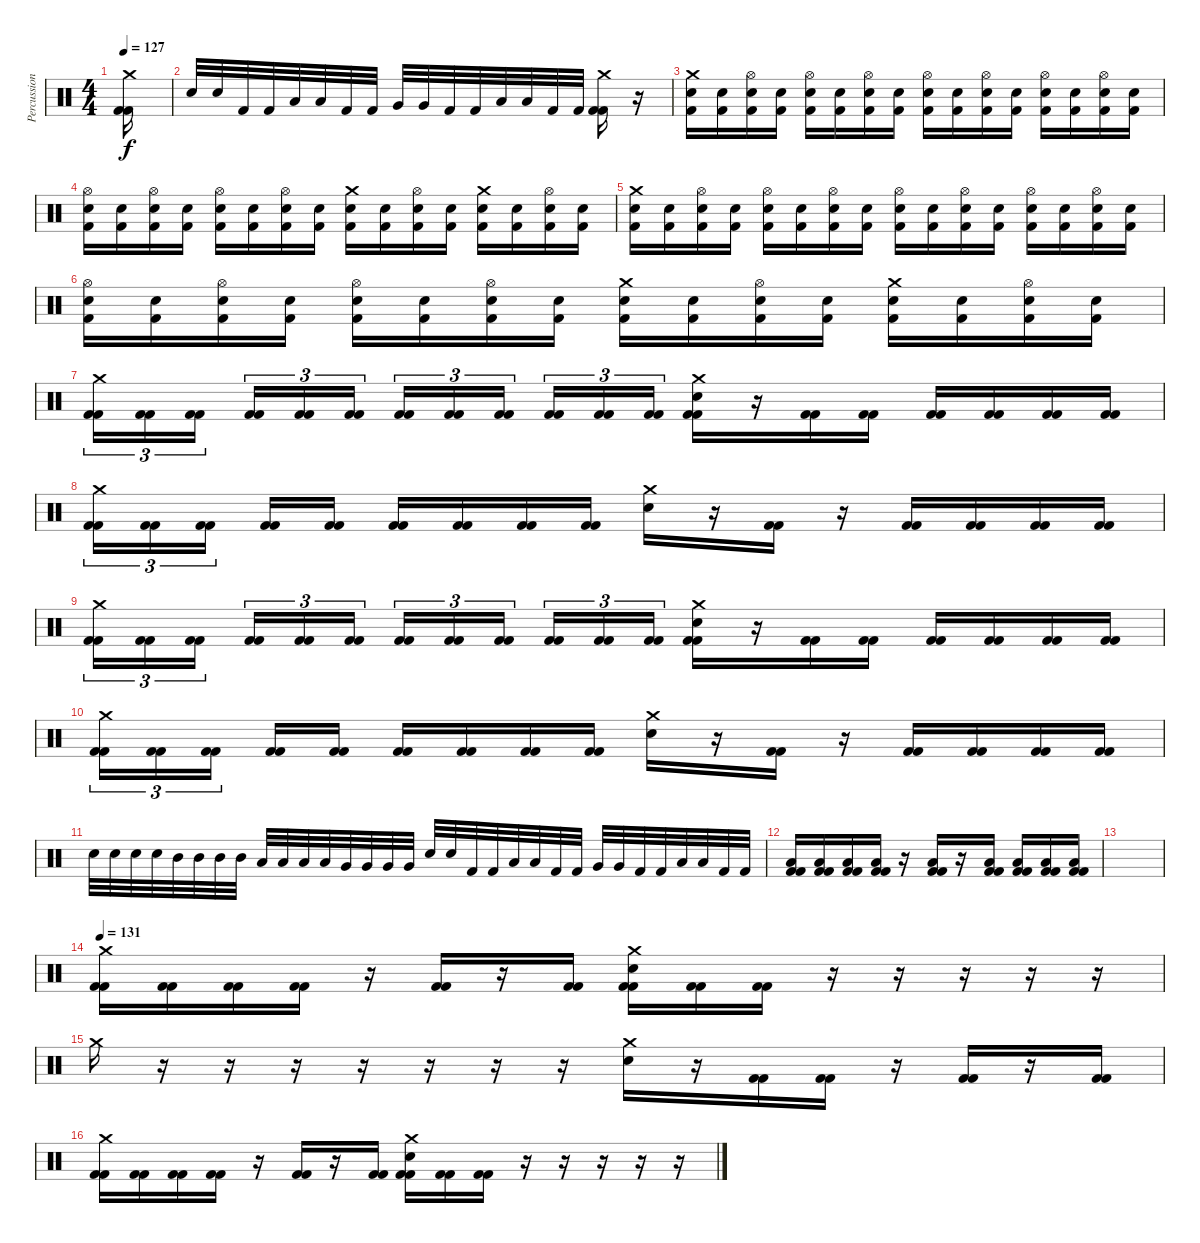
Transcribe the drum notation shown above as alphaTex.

\track ("Percussion" "Percussion") {instrument percussion}
\staff {score}
\articulation defaults
\ts (4 4)
\tempo 127
\clef neutral
\ks c
("Crash medium (hit)" "Kick (hit) 2" "Kick (hit) 2").16{dy f} |
"Electric Snare (hit)".32 "Electric Snare (hit)".32 "Kick (hit) 2".32 "Kick (hit) 2".32 "Low Tom (hit)".32 "Low Tom (hit)".32 "Kick (hit) 2".32 "Kick (hit) 2".32 "Very Low Tom (hit)".32 "Very Low Tom (hit)".32 "Kick (hit) 2".32 "Kick (hit) 2".32 "Low Floor Tom (hit)".32 "Low Floor Tom (hit)".32 "Kick (hit) 2".32 "Kick (hit) 2".32 ("Crash medium (hit)" "Kick (hit) 2" "Kick (hit) 2").16 r.16{volume 0} |
("Crash medium (hit)" "Electric Snare (hit)" "Kick (hit) 2").16{volume 13} ("Electric Snare (hit)" "Kick (hit) 2").16 ("Hi-Hat (open)" "Electric Snare (hit)" "Kick (hit) 2").16 ("Electric Snare (hit)" "Kick (hit) 2").16 ("Hi-Hat (open)" "Electric Snare (hit)" "Kick (hit) 2").16 ("Electric Snare (hit)" "Kick (hit) 2").16 ("Hi-Hat (open)" "Electric Snare (hit)" "Kick (hit) 2").16 ("Electric Snare (hit)" "Kick (hit) 2").16 ("Hi-Hat (open)" "Electric Snare (hit)" "Kick (hit) 2").16 ("Electric Snare (hit)" "Kick (hit) 2").16 ("Hi-Hat (open)" "Electric Snare (hit)" "Kick (hit) 2").16 ("Electric Snare (hit)" "Kick (hit) 2").16 ("Hi-Hat (open)" "Electric Snare (hit)" "Kick (hit) 2").16 ("Electric Snare (hit)" "Kick (hit) 2").16 ("Hi-Hat (open)" "Electric Snare (hit)" "Kick (hit) 2").16 ("Electric Snare (hit)" "Kick (hit) 2").16 |
("Hi-Hat (open)" "Electric Snare (hit)" "Kick (hit) 2").16{volume 13} ("Electric Snare (hit)" "Kick (hit) 2").16 ("Hi-Hat (open)" "Electric Snare (hit)" "Kick (hit) 2").16 ("Electric Snare (hit)" "Kick (hit) 2").16 ("Hi-Hat (open)" "Electric Snare (hit)" "Kick (hit) 2").16 ("Electric Snare (hit)" "Kick (hit) 2").16 ("Hi-Hat (open)" "Electric Snare (hit)" "Kick (hit) 2").16 ("Electric Snare (hit)" "Kick (hit) 2").16 ("Crash medium (hit)" "Electric Snare (hit)" "Kick (hit) 2").16 ("Electric Snare (hit)" "Kick (hit) 2").16 ("Hi-Hat (open)" "Electric Snare (hit)" "Kick (hit) 2").16 ("Electric Snare (hit)" "Kick (hit) 2").16 ("Crash medium (hit)" "Electric Snare (hit)" "Kick (hit) 2").16 ("Electric Snare (hit)" "Kick (hit) 2").16 ("Hi-Hat (open)" "Electric Snare (hit)" "Kick (hit) 2").16 ("Electric Snare (hit)" "Kick (hit) 2").16 |
("Crash medium (hit)" "Electric Snare (hit)" "Kick (hit) 2").16{volume 13} ("Electric Snare (hit)" "Kick (hit) 2").16 ("Hi-Hat (open)" "Electric Snare (hit)" "Kick (hit) 2").16 ("Electric Snare (hit)" "Kick (hit) 2").16 ("Hi-Hat (open)" "Electric Snare (hit)" "Kick (hit) 2").16 ("Electric Snare (hit)" "Kick (hit) 2").16 ("Hi-Hat (open)" "Electric Snare (hit)" "Kick (hit) 2").16 ("Electric Snare (hit)" "Kick (hit) 2").16 ("Hi-Hat (open)" "Electric Snare (hit)" "Kick (hit) 2").16 ("Electric Snare (hit)" "Kick (hit) 2").16 ("Hi-Hat (open)" "Electric Snare (hit)" "Kick (hit) 2").16 ("Electric Snare (hit)" "Kick (hit) 2").16 ("Hi-Hat (open)" "Electric Snare (hit)" "Kick (hit) 2").16 ("Electric Snare (hit)" "Kick (hit) 2").16 ("Hi-Hat (open)" "Electric Snare (hit)" "Kick (hit) 2").16 ("Electric Snare (hit)" "Kick (hit) 2").16 |
("Hi-Hat (open)" "Electric Snare (hit)" "Kick (hit) 2").16{volume 13} ("Electric Snare (hit)" "Kick (hit) 2").16 ("Hi-Hat (open)" "Electric Snare (hit)" "Kick (hit) 2").16 ("Electric Snare (hit)" "Kick (hit) 2").16 ("Hi-Hat (open)" "Electric Snare (hit)" "Kick (hit) 2").16 ("Electric Snare (hit)" "Kick (hit) 2").16 ("Hi-Hat (open)" "Electric Snare (hit)" "Kick (hit) 2").16 ("Electric Snare (hit)" "Kick (hit) 2").16 ("Crash medium (hit)" "Electric Snare (hit)" "Kick (hit) 2").16 ("Electric Snare (hit)" "Kick (hit) 2").16 ("Hi-Hat (open)" "Electric Snare (hit)" "Kick (hit) 2").16 ("Electric Snare (hit)" "Kick (hit) 2").16 ("Crash medium (hit)" "Electric Snare (hit)" "Kick (hit) 2").16 ("Electric Snare (hit)" "Kick (hit) 2").16 ("Hi-Hat (open)" "Electric Snare (hit)" "Kick (hit) 2").16 ("Electric Snare (hit)" "Kick (hit) 2").16 |
("Crash medium (hit)" "Kick (hit) 2" "Kick (hit) 2").16{tu (3 2)} ("Kick (hit) 2" "Kick (hit) 2").16{tu (3 2)} ("Kick (hit) 2" "Kick (hit) 2").16{tu (3 2) beam splitsecondary} ("Kick (hit) 2" "Kick (hit) 2").16{tu (3 2)} ("Kick (hit) 2" "Kick (hit) 2").16{tu (3 2)} ("Kick (hit) 2" "Kick (hit) 2").16{tu (3 2)} ("Kick (hit) 2" "Kick (hit) 2").16{tu (3 2)} ("Kick (hit) 2" "Kick (hit) 2").16{tu (3 2)} ("Kick (hit) 2" "Kick (hit) 2").16{tu (3 2) beam splitsecondary} ("Kick (hit) 2" "Kick (hit) 2").16{tu (3 2)} ("Kick (hit) 2" "Kick (hit) 2").16{tu (3 2)} ("Kick (hit) 2" "Kick (hit) 2").16{tu (3 2)} ("Crash medium (hit)" "Electric Snare (hit)" "Kick (hit) 2" "Kick (hit) 2").16 r.16 ("Kick (hit) 2" "Kick (hit) 2").16 ("Kick (hit) 2" "Kick (hit) 2").16 ("Kick (hit) 2" "Kick (hit) 2").16 ("Kick (hit) 2" "Kick (hit) 2").16 ("Kick (hit) 2" "Kick (hit) 2").16 ("Kick (hit) 2" "Kick (hit) 2").16 |
("Crash medium (hit)" "Kick (hit) 2" "Kick (hit) 2").16{tu (3 2)} ("Kick (hit) 2" "Kick (hit) 2").16{tu (3 2)} ("Kick (hit) 2" "Kick (hit) 2").16{tu (3 2) beam splitsecondary} ("Kick (hit) 2" "Kick (hit) 2").16 ("Kick (hit) 2" "Kick (hit) 2").16 ("Kick (hit) 2" "Kick (hit) 2").16 ("Kick (hit) 2" "Kick (hit) 2").16 ("Kick (hit) 2" "Kick (hit) 2").16 ("Kick (hit) 2" "Kick (hit) 2").16 ("Crash medium (hit)" "Electric Snare (hit)").16 r.16 ("Kick (hit) 2" "Kick (hit) 2").16 r.16 ("Kick (hit) 2" "Kick (hit) 2").16 ("Kick (hit) 2" "Kick (hit) 2").16 ("Kick (hit) 2" "Kick (hit) 2").16 ("Kick (hit) 2" "Kick (hit) 2").16 |
("Crash medium (hit)" "Kick (hit) 2" "Kick (hit) 2").16{tu (3 2)} ("Kick (hit) 2" "Kick (hit) 2").16{tu (3 2)} ("Kick (hit) 2" "Kick (hit) 2").16{tu (3 2) beam splitsecondary} ("Kick (hit) 2" "Kick (hit) 2").16{tu (3 2)} ("Kick (hit) 2" "Kick (hit) 2").16{tu (3 2)} ("Kick (hit) 2" "Kick (hit) 2").16{tu (3 2)} ("Kick (hit) 2" "Kick (hit) 2").16{tu (3 2)} ("Kick (hit) 2" "Kick (hit) 2").16{tu (3 2)} ("Kick (hit) 2" "Kick (hit) 2").16{tu (3 2) beam splitsecondary} ("Kick (hit) 2" "Kick (hit) 2").16{tu (3 2)} ("Kick (hit) 2" "Kick (hit) 2").16{tu (3 2)} ("Kick (hit) 2" "Kick (hit) 2").16{tu (3 2)} ("Crash medium (hit)" "Electric Snare (hit)" "Kick (hit) 2" "Kick (hit) 2").16 r.16 ("Kick (hit) 2" "Kick (hit) 2").16 ("Kick (hit) 2" "Kick (hit) 2").16 ("Kick (hit) 2" "Kick (hit) 2").16 ("Kick (hit) 2" "Kick (hit) 2").16 ("Kick (hit) 2" "Kick (hit) 2").16 ("Kick (hit) 2" "Kick (hit) 2").16 |
("Crash medium (hit)" "Kick (hit) 2" "Kick (hit) 2").16{tu (3 2)} ("Kick (hit) 2" "Kick (hit) 2").16{tu (3 2)} ("Kick (hit) 2" "Kick (hit) 2").16{tu (3 2) beam splitsecondary} ("Kick (hit) 2" "Kick (hit) 2").16 ("Kick (hit) 2" "Kick (hit) 2").16 ("Kick (hit) 2" "Kick (hit) 2").16 ("Kick (hit) 2" "Kick (hit) 2").16 ("Kick (hit) 2" "Kick (hit) 2").16 ("Kick (hit) 2" "Kick (hit) 2").16 ("Crash medium (hit)" "Electric Snare (hit)").16 r.16 ("Kick (hit) 2" "Kick (hit) 2").16 r.16 ("Kick (hit) 2" "Kick (hit) 2").16 ("Kick (hit) 2" "Kick (hit) 2").16 ("Kick (hit) 2" "Kick (hit) 2").16 ("Kick (hit) 2" "Kick (hit) 2").16 |
"Electric Snare (hit)".32 "Electric Snare (hit)".32 "Electric Snare (hit)".32 "Electric Snare (hit)".32 "Mid Tom (hit)".32 "Mid Tom (hit)".32 "Mid Tom (hit)".32 "Mid Tom (hit)".32 "Low Tom (hit)".32 "Low Tom (hit)".32 "Low Tom (hit)".32 "Low Tom (hit)".32 "Very Low Tom (hit)".32 "Very Low Tom (hit)".32 "Very Low Tom (hit)".32 "Very Low Tom (hit)".32 "Electric Snare (hit)".32 "Electric Snare (hit)".32 "Kick (hit) 2".32 "Kick (hit) 2".32 "Low Tom (hit)".32 "Low Tom (hit)".32 "Kick (hit) 2".32 "Kick (hit) 2".32 "Very Low Tom (hit)".32 "Very Low Tom (hit)".32 "Kick (hit) 2".32 "Kick (hit) 2".32 "Low Floor Tom (hit)".32 "Low Floor Tom (hit)".32 "Kick (hit) 2".32 "Kick (hit) 2".32 |
("Low Tom (hit)" "Kick (hit) 2" "Kick (hit) 2").16 ("Low Tom (hit)" "Kick (hit) 2" "Kick (hit) 2").16 ("Low Tom (hit)" "Kick (hit) 2" "Kick (hit) 2").16 ("Low Tom (hit)" "Kick (hit) 2" "Kick (hit) 2").16 r.16 ("Low Tom (hit)" "Kick (hit) 2" "Kick (hit) 2").16 r.16 ("Low Tom (hit)" "Kick (hit) 2" "Kick (hit) 2").16 ("Low Tom (hit)" "Kick (hit) 2" "Kick (hit) 2").16 ("Low Tom (hit)" "Kick (hit) 2" "Kick (hit) 2").16 ("Low Tom (hit)" "Kick (hit) 2" "Kick (hit) 2").16 |
|
\tempo 131
("Crash medium (hit)" "Kick (hit) 2" "Kick (hit) 2").16 ("Kick (hit) 2" "Kick (hit) 2").16 ("Kick (hit) 2" "Kick (hit) 2").16 ("Kick (hit) 2" "Kick (hit) 2").16 r.16 ("Kick (hit) 2" "Kick (hit) 2").16 r.16 ("Kick (hit) 2" "Kick (hit) 2").16 ("Crash medium (hit)" "Electric Snare (hit)" "Kick (hit) 2" "Kick (hit) 2").16 ("Kick (hit) 2" "Kick (hit) 2").16 ("Kick (hit) 2" "Kick (hit) 2").16 r.16 r.16 r.16 r.16 r.16 |
"Crash medium (hit)".16 r.16 r.16 r.16 r.16 r.16 r.16 r.16 ("Crash medium (hit)" "Electric Snare (hit)").16 r.16 ("Kick (hit) 2" "Kick (hit) 2").16 ("Kick (hit) 2" "Kick (hit) 2").16 r.16 ("Kick (hit) 2" "Kick (hit) 2").16 r.16 ("Kick (hit) 2" "Kick (hit) 2").16 |
("Crash medium (hit)" "Kick (hit) 2" "Kick (hit) 2").16 ("Kick (hit) 2" "Kick (hit) 2").16 ("Kick (hit) 2" "Kick (hit) 2").16 ("Kick (hit) 2" "Kick (hit) 2").16 r.16 ("Kick (hit) 2" "Kick (hit) 2").16 r.16 ("Kick (hit) 2" "Kick (hit) 2").16 ("Crash medium (hit)" "Electric Snare (hit)" "Kick (hit) 2" "Kick (hit) 2").16 ("Kick (hit) 2" "Kick (hit) 2").16 ("Kick (hit) 2" "Kick (hit) 2").16 r.16 r.16 r.16 r.16 r.16
